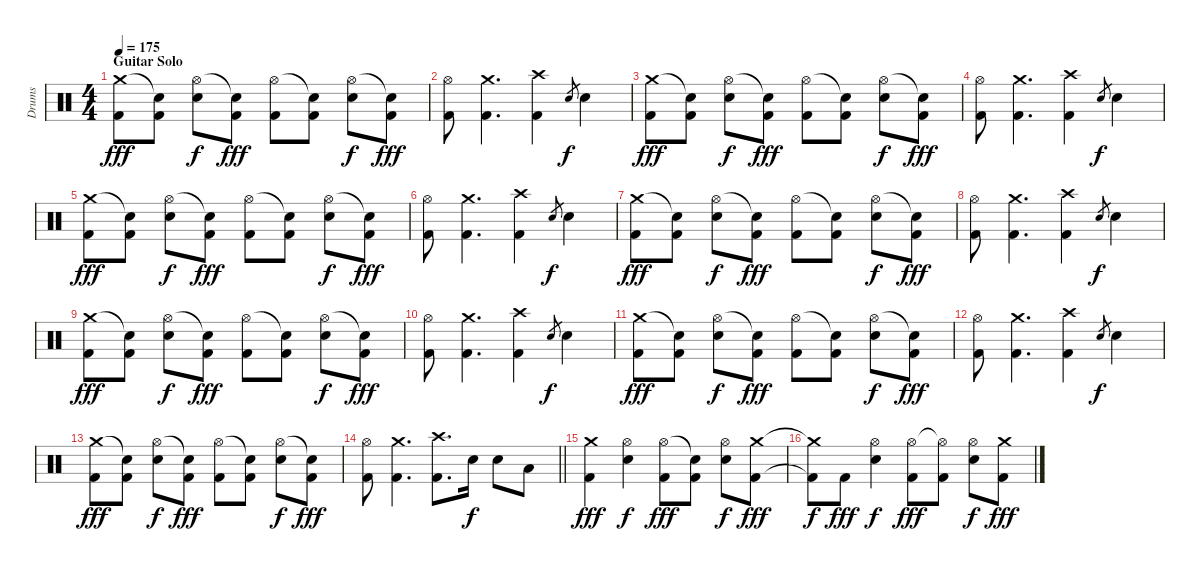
\track ("Drums" "Drums") {instrument percussion}
\staff {score}
\articulation defaults
\ts (4 4)
\section ("" "Guitar Solo")
\tempo 175
\clef neutral
\ks c
("Crash medium (hit)" "Kick (hit) 2").8{dy fff} ("Snare (hit)"{t} "Kick (hit) 2").8 ("Hi-Hat (open)" "Snare (hit) 2").8{dy f} ("Snare (hit)"{t} "Kick (hit) 2").8{dy fff} ("Hi-Hat (open)" "Kick (hit) 2").8 ("Snare (hit)"{t} "Kick (hit) 2").8 ("Hi-Hat (open)" "Snare (hit) 2").8{dy f} ("Snare (hit)"{t} "Kick (hit) 2").8{dy fff} |
("Hi-Hat (open)" "Kick (hit) 2").8 ("Crash medium (hit)" "Kick (hit) 2").4{d} ("Crash high (hit)" "Kick (hit) 2").4 "Snare (hit) 2".8{gr dy f} "Snare (hit) 2".4 |
("Crash medium (hit)" "Kick (hit) 2").8{dy fff} ("Snare (hit)"{t} "Kick (hit) 2").8 ("Hi-Hat (open)" "Snare (hit) 2").8{dy f} ("Snare (hit)"{t} "Kick (hit) 2").8{dy fff} ("Hi-Hat (open)" "Kick (hit) 2").8 ("Snare (hit)"{t} "Kick (hit) 2").8 ("Hi-Hat (open)" "Snare (hit) 2").8{dy f} ("Snare (hit)"{t} "Kick (hit) 2").8{dy fff} |
("Hi-Hat (open)" "Kick (hit) 2").8 ("Crash medium (hit)" "Kick (hit) 2").4{d} ("Crash high (hit)" "Kick (hit) 2").4 "Snare (hit) 2".8{gr dy f} "Snare (hit) 2".4 |
("Crash medium (hit)" "Kick (hit) 2").8{dy fff} ("Snare (hit)"{t} "Kick (hit) 2").8 ("Hi-Hat (open)" "Snare (hit) 2").8{dy f} ("Snare (hit)"{t} "Kick (hit) 2").8{dy fff} ("Hi-Hat (open)" "Kick (hit) 2").8 ("Snare (hit)"{t} "Kick (hit) 2").8 ("Hi-Hat (open)" "Snare (hit) 2").8{dy f} ("Snare (hit)"{t} "Kick (hit) 2").8{dy fff} |
("Hi-Hat (open)" "Kick (hit) 2").8 ("Crash medium (hit)" "Kick (hit) 2").4{d} ("Crash high (hit)" "Kick (hit) 2").4 "Snare (hit) 2".8{gr dy f} "Snare (hit) 2".4 |
("Crash medium (hit)" "Kick (hit) 2").8{dy fff} ("Snare (hit)"{t} "Kick (hit) 2").8 ("Hi-Hat (open)" "Snare (hit) 2").8{dy f} ("Snare (hit)"{t} "Kick (hit) 2").8{dy fff} ("Hi-Hat (open)" "Kick (hit) 2").8 ("Snare (hit)"{t} "Kick (hit) 2").8 ("Hi-Hat (open)" "Snare (hit) 2").8{dy f} ("Snare (hit)"{t} "Kick (hit) 2").8{dy fff} |
("Hi-Hat (open)" "Kick (hit) 2").8 ("Crash medium (hit)" "Kick (hit) 2").4{d} ("Crash high (hit)" "Kick (hit) 2").4 "Snare (hit) 2".8{gr dy f} "Snare (hit) 2".4 |
("Crash medium (hit)" "Kick (hit) 2").8{dy fff} ("Snare (hit)"{t} "Kick (hit) 2").8 ("Hi-Hat (open)" "Snare (hit) 2").8{dy f} ("Snare (hit)"{t} "Kick (hit) 2").8{dy fff} ("Hi-Hat (open)" "Kick (hit) 2").8 ("Snare (hit)"{t} "Kick (hit) 2").8 ("Hi-Hat (open)" "Snare (hit) 2").8{dy f} ("Snare (hit)"{t} "Kick (hit) 2").8{dy fff} |
("Hi-Hat (open)" "Kick (hit) 2").8 ("Crash medium (hit)" "Kick (hit) 2").4{d} ("Crash high (hit)" "Kick (hit) 2").4 "Snare (hit) 2".8{gr dy f} "Snare (hit) 2".4 |
("Crash medium (hit)" "Kick (hit) 2").8{dy fff} ("Snare (hit)"{t} "Kick (hit) 2").8 ("Hi-Hat (open)" "Snare (hit) 2").8{dy f} ("Snare (hit)"{t} "Kick (hit) 2").8{dy fff} ("Hi-Hat (open)" "Kick (hit) 2").8 ("Snare (hit)"{t} "Kick (hit) 2").8 ("Hi-Hat (open)" "Snare (hit) 2").8{dy f} ("Snare (hit)"{t} "Kick (hit) 2").8{dy fff} |
("Hi-Hat (open)" "Kick (hit) 2").8 ("Crash medium (hit)" "Kick (hit) 2").4{d} ("Crash high (hit)" "Kick (hit) 2").4 "Snare (hit) 2".8{gr dy f} "Snare (hit) 2".4 |
("Crash medium (hit)" "Kick (hit) 2").8{dy fff} ("Snare (hit)"{t} "Kick (hit) 2").8 ("Hi-Hat (open)" "Snare (hit) 2").8{dy f} ("Snare (hit)"{t} "Kick (hit) 2").8{dy fff} ("Hi-Hat (open)" "Kick (hit) 2").8 ("Snare (hit)"{t} "Kick (hit) 2").8 ("Hi-Hat (open)" "Snare (hit) 2").8{dy f} ("Snare (hit)"{t} "Kick (hit) 2").8{dy fff} |
\barLineRight lightlight
("Hi-Hat (open)" "Kick (hit) 2").8 ("Crash medium (hit)" "Kick (hit) 2").4{d} ("Crash high (hit)" "Kick (hit) 2").8{d} "Snare (hit) 2".16{dy f} "Snare (hit) 2".8 "Low Tom (hit)".8 |
("Crash medium (hit)" "Kick (hit) 2").4{dy fff} ("Hi-Hat (open)" "Snare (hit) 2").4{dy f} ("Hi-Hat (open)" "Kick (hit) 2").8{dy fff} ("Snare (hit)"{t} "Kick (hit) 2").8 ("Hi-Hat (open)" "Snare (hit) 2").8{dy f} ("Crash medium (hit)" "Kick (hit) 2").8{dy fff} |
("Crash medium (hit)"{t} "Kick (hit) 2"{t}).8{dy f} "Kick (hit) 2".8{dy fff} ("Hi-Hat (open)" "Snare (hit) 2").4{dy f} ("Hi-Hat (open)" "Kick (hit) 2").8{dy fff} ("Hi-Hat (open)"{t} "Kick (hit) 2").8 ("Hi-Hat (open)" "Snare (hit) 2").8{dy f} ("Crash medium (hit)" "Kick (hit) 2").8{dy fff}
